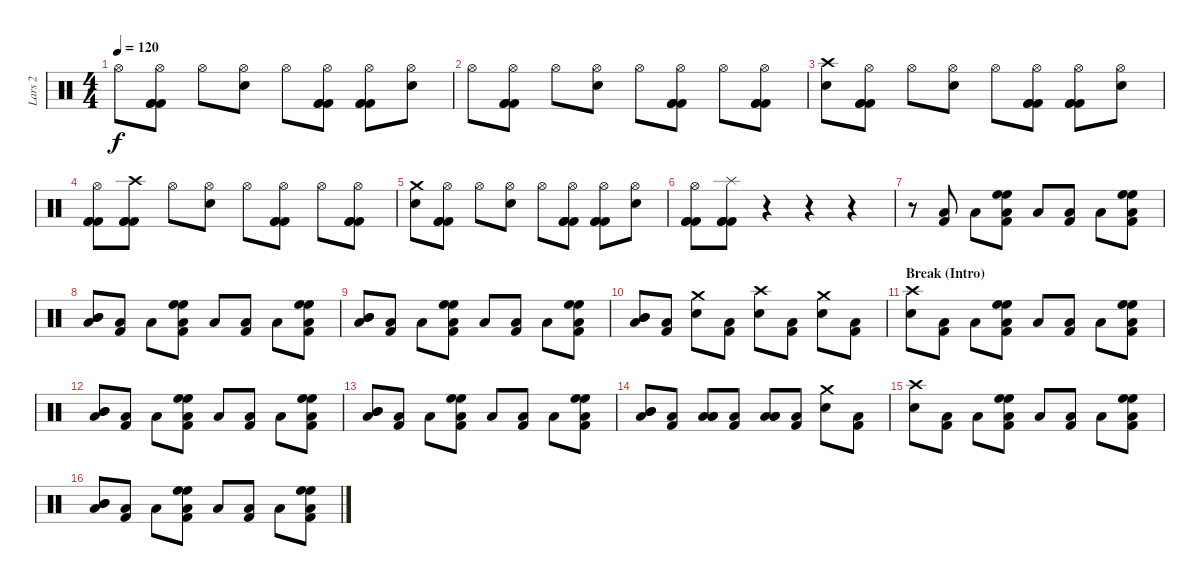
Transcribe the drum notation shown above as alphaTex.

\track ("Lars 2" "Lars 2") {instrument percussion}
\staff {score}
\articulation defaults
\ts (4 4)
\tempo 120
\clef neutral
\ks c "Hi-Hat (open)".8{dy f}
("Hi-Hat (open)" "Kick (hit) 2" "Kick (hit) 2" "Kick (hit) 2").8 "Hi-Hat (open)".8 ("Hi-Hat (open)" "Electric Snare (hit)").8 "Hi-Hat (open)".8 ("Hi-Hat (open)" "Kick (hit) 2" "Kick (hit) 2" "Kick (hit) 2").8 ("Hi-Hat (open)" "Kick (hit) 2" "Kick (hit) 2" "Kick (hit) 2").8 ("Hi-Hat (open)" "Electric Snare (hit)").8 |
"Hi-Hat (open)".8 ("Hi-Hat (open)" "Kick (hit) 2" "Kick (hit) 2" "Kick (hit) 2").8 "Hi-Hat (open)".8 ("Hi-Hat (open)" "Electric Snare (hit)").8 "Hi-Hat (open)".8 ("Hi-Hat (open)" "Kick (hit) 2" "Kick (hit) 2" "Kick (hit) 2").8 "Hi-Hat (open)".8 ("Hi-Hat (open)" "Kick (hit) 2" "Kick (hit) 2" "Kick (hit) 2").8 |
("Crash high (hit)" "Electric Snare (hit)").8 ("Hi-Hat (open)" "Kick (hit) 2" "Kick (hit) 2" "Kick (hit) 2").8 "Hi-Hat (open)".8 ("Hi-Hat (open)" "Electric Snare (hit)").8 "Hi-Hat (open)".8 ("Hi-Hat (open)" "Kick (hit) 2" "Kick (hit) 2" "Kick (hit) 2").8 ("Hi-Hat (open)" "Kick (hit) 2" "Kick (hit) 2" "Kick (hit) 2").8 ("Hi-Hat (open)" "Electric Snare (hit)").8 |
("Hi-Hat (open)" "Kick (hit) 2" "Kick (hit) 2" "Kick (hit) 2").8 ("Crash high (hit)" "Kick (hit) 2" "Kick (hit) 2" "Kick (hit) 2").8 "Hi-Hat (open)".8 ("Hi-Hat (open)" "Electric Snare (hit)").8 "Hi-Hat (open)".8 ("Hi-Hat (open)" "Kick (hit) 2" "Kick (hit) 2" "Kick (hit) 2").8 "Hi-Hat (open)".8 ("Hi-Hat (open)" "Kick (hit) 2" "Kick (hit) 2" "Kick (hit) 2").8 |
("Crash medium (hit)" "Electric Snare (hit)").8 ("Hi-Hat (open)" "Kick (hit) 2" "Kick (hit) 2" "Kick (hit) 2").8 "Hi-Hat (open)".8 ("Hi-Hat (open)" "Electric Snare (hit)").8 "Hi-Hat (open)".8 ("Hi-Hat (open)" "Kick (hit) 2" "Kick (hit) 2" "Kick (hit) 2").8 ("Hi-Hat (open)" "Kick (hit) 2" "Kick (hit) 2" "Kick (hit) 2").8 ("Hi-Hat (open)" "Electric Snare (hit)").8 |
("Hi-Hat (open)" "Kick (hit) 2" "Kick (hit) 2" "Kick (hit) 2").8 ("Splash (hit)" "Kick (hit) 2" "Kick (hit) 2" "Kick (hit) 2").8 r.4 r.4 r.4 |
r.8 ("Low Tom (hit)" "Kick (hit) 2").8 "Low Tom (hit)".8 ("High Floor Tom (hit)" "Low Tom (hit)" "High Floor Tom (hit)" "Kick (hit) 2").8 "Low Tom (hit)".8 ("Low Tom (hit)" "Kick (hit) 2").8 "Low Tom (hit)".8 ("High Floor Tom (hit)" "Low Tom (hit)" "High Floor Tom (hit)" "Kick (hit) 2").8 |
("Mid Tom (hit)" "Low Tom (hit)" "Mid Tom (hit)").8 ("Low Tom (hit)" "Kick (hit) 2").8 "Low Tom (hit)".8 ("High Floor Tom (hit)" "Low Tom (hit)" "High Floor Tom (hit)" "Kick (hit) 2").8 "Low Tom (hit)".8 ("Low Tom (hit)" "Kick (hit) 2").8 "Low Tom (hit)".8 ("High Floor Tom (hit)" "Low Tom (hit)" "High Floor Tom (hit)" "Kick (hit) 2").8 |
("Mid Tom (hit)" "Low Tom (hit)" "Mid Tom (hit)").8 ("Low Tom (hit)" "Kick (hit) 2").8 "Low Tom (hit)".8 ("High Floor Tom (hit)" "Low Tom (hit)" "High Floor Tom (hit)" "Kick (hit) 2").8 "Low Tom (hit)".8 ("Low Tom (hit)" "Kick (hit) 2").8 "Low Tom (hit)".8 ("High Floor Tom (hit)" "Low Tom (hit)" "High Floor Tom (hit)" "Kick (hit) 2").8 |
("Mid Tom (hit)" "Low Tom (hit)" "Mid Tom (hit)").8 ("Low Tom (hit)" "Kick (hit) 2").8 ("Crash medium (hit)" "Electric Snare (hit)").8 ("Low Tom (hit)" "Kick (hit) 2").8 ("Crash high (hit)" "Electric Snare (hit)").8 ("Low Tom (hit)" "Kick (hit) 2").8 ("Crash medium (hit)" "Electric Snare (hit)").8 ("Low Tom (hit)" "Kick (hit) 2").8 |
\section ("" "Break (Intro)")
("Crash high (hit)" "Electric Snare (hit)").8 ("Low Tom (hit)" "Kick (hit) 2").8 "Low Tom (hit)".8 ("High Floor Tom (hit)" "Low Tom (hit)" "High Floor Tom (hit)" "Kick (hit) 2").8 "Low Tom (hit)".8 ("Low Tom (hit)" "Kick (hit) 2").8 "Low Tom (hit)".8 ("High Floor Tom (hit)" "Low Tom (hit)" "High Floor Tom (hit)" "Kick (hit) 2").8 |
("Mid Tom (hit)" "Low Tom (hit)" "Mid Tom (hit)").8 ("Low Tom (hit)" "Kick (hit) 2").8 "Low Tom (hit)".8 ("High Floor Tom (hit)" "Low Tom (hit)" "High Floor Tom (hit)" "Kick (hit) 2").8 "Low Tom (hit)".8 ("Low Tom (hit)" "Kick (hit) 2").8 "Low Tom (hit)".8 ("High Floor Tom (hit)" "Low Tom (hit)" "High Floor Tom (hit)" "Kick (hit) 2").8 |
("Mid Tom (hit)" "Low Tom (hit)" "Mid Tom (hit)").8 ("Low Tom (hit)" "Kick (hit) 2").8 "Low Tom (hit)".8 ("High Floor Tom (hit)" "Low Tom (hit)" "High Floor Tom (hit)" "Kick (hit) 2").8 "Low Tom (hit)".8 ("Low Tom (hit)" "Kick (hit) 2").8 "Low Tom (hit)".8 ("High Floor Tom (hit)" "Low Tom (hit)" "High Floor Tom (hit)" "Kick (hit) 2").8 |
("Mid Tom (hit)" "Low Tom (hit)" "Mid Tom (hit)").8 ("Low Tom (hit)" "Kick (hit) 2").8 ("Low Tom (hit)" "Low Tom (hit)" "Low Tom (hit)").8 ("Low Tom (hit)" "Kick (hit) 2").8 ("Low Tom (hit)" "Low Tom (hit)" "Low Tom (hit)").8 ("Low Tom (hit)" "Kick (hit) 2").8 ("Crash medium (hit)" "Electric Snare (hit)").8 ("Low Tom (hit)" "Kick (hit) 2").8 |
("Crash high (hit)" "Electric Snare (hit)").8 ("Low Tom (hit)" "Kick (hit) 2").8 "Low Tom (hit)".8 ("High Floor Tom (hit)" "Low Tom (hit)" "High Floor Tom (hit)" "Kick (hit) 2").8 "Low Tom (hit)".8 ("Low Tom (hit)" "Kick (hit) 2").8 "Low Tom (hit)".8 ("High Floor Tom (hit)" "Low Tom (hit)" "High Floor Tom (hit)" "Kick (hit) 2").8 |
("Mid Tom (hit)" "Low Tom (hit)" "Mid Tom (hit)").8 ("Low Tom (hit)" "Kick (hit) 2").8 "Low Tom (hit)".8 ("High Floor Tom (hit)" "Low Tom (hit)" "High Floor Tom (hit)" "Kick (hit) 2").8 "Low Tom (hit)".8 ("Low Tom (hit)" "Kick (hit) 2").8 "Low Tom (hit)".8 ("High Floor Tom (hit)" "Low Tom (hit)" "High Floor Tom (hit)" "Kick (hit) 2").8
